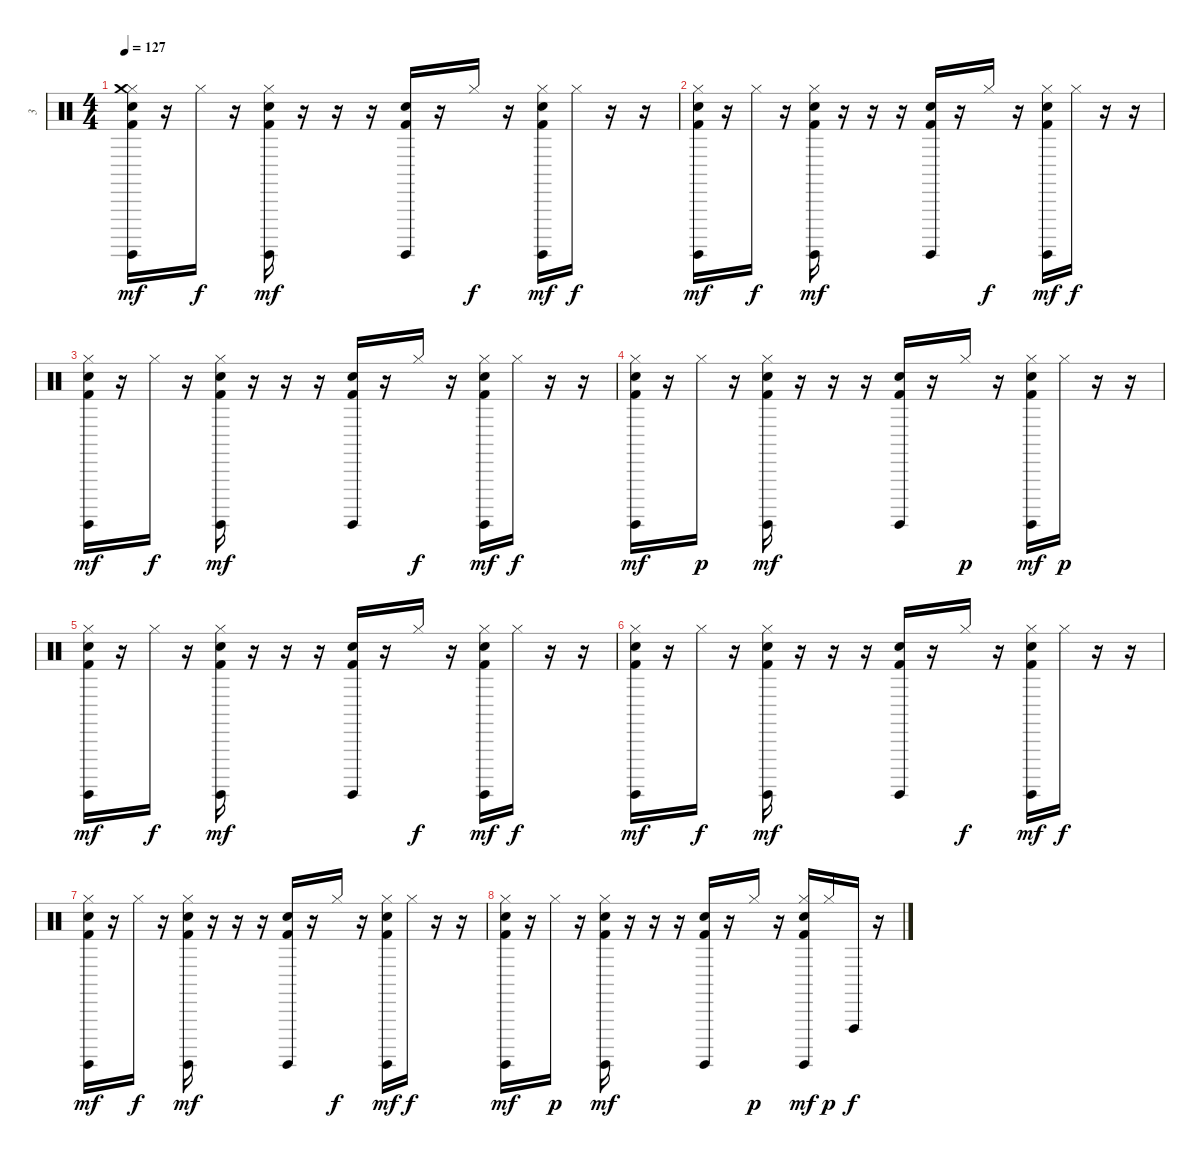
\track ("3" "3") {instrument percussion}
\staff {score}
\articulation defaults
\ts (4 4)
\tempo 127
\clef neutral
\ks c
("Hi-Hat (closed)" "Crash medium (hit)" "Surdo (hit)" "Kick (hit) 2" "Hand Clap (hit)").16{dy mf} r.16 "Hi-Hat (closed)".16{dy f} r.16 ("Hi-Hat (closed)" "Surdo (hit)" "Kick (hit) 2" "Hand Clap (hit)").16{dy mf} r.16 r.16 r.16 ("Surdo (hit)" "Kick (hit) 2" "Hand Clap (hit)").16 r.16 "Hi-Hat (closed)".16{dy f} r.16 ("Hi-Hat (closed)" "Surdo (hit)" "Kick (hit) 2" "Hand Clap (hit)").16{dy mf} "Hi-Hat (closed)".16{dy f} r.16 r.16 |
("Hi-Hat (closed)" "Surdo (hit)" "Kick (hit) 2" "Hand Clap (hit)").16{dy mf} r.16 "Hi-Hat (closed)".16{dy f} r.16 ("Hi-Hat (closed)" "Surdo (hit)" "Kick (hit) 2" "Hand Clap (hit)").16{dy mf} r.16 r.16 r.16 ("Surdo (hit)" "Kick (hit) 2" "Hand Clap (hit)").16 r.16 "Hi-Hat (closed)".16{dy f} r.16 ("Hi-Hat (closed)" "Surdo (hit)" "Kick (hit) 2" "Hand Clap (hit)").16{dy mf} "Hi-Hat (closed)".16{dy f} r.16 r.16 |
("Hi-Hat (closed)" "Surdo (hit)" "Kick (hit) 2" "Hand Clap (hit)").16{dy mf} r.16 "Hi-Hat (closed)".16{dy f} r.16 ("Hi-Hat (closed)" "Surdo (hit)" "Kick (hit) 2" "Hand Clap (hit)").16{dy mf} r.16 r.16 r.16 ("Surdo (hit)" "Kick (hit) 2" "Hand Clap (hit)").16 r.16 "Hi-Hat (closed)".16{dy f} r.16 ("Hi-Hat (closed)" "Surdo (hit)" "Kick (hit) 2" "Hand Clap (hit)").16{dy mf} "Hi-Hat (closed)".16{dy f} r.16 r.16 |
("Hi-Hat (closed)" "Surdo (hit)" "Kick (hit) 2" "Hand Clap (hit)").16{dy mf} r.16 "Hi-Hat (closed)".16{dy p} r.16 ("Hi-Hat (closed)" "Surdo (hit)" "Kick (hit) 2" "Hand Clap (hit)").16{dy mf} r.16 r.16 r.16 ("Surdo (hit)" "Kick (hit) 2" "Hand Clap (hit)").16 r.16 "Hi-Hat (closed)".16{dy p} r.16 ("Hi-Hat (closed)" "Surdo (hit)" "Kick (hit) 2" "Hand Clap (hit)").16{dy mf} "Hi-Hat (closed)".16{dy p} r.16 r.16 |
("Hi-Hat (closed)" "Surdo (hit)" "Kick (hit) 2" "Hand Clap (hit)").16{dy mf} r.16 "Hi-Hat (closed)".16{dy f} r.16 ("Hi-Hat (closed)" "Surdo (hit)" "Kick (hit) 2" "Hand Clap (hit)").16{dy mf} r.16 r.16 r.16 ("Surdo (hit)" "Kick (hit) 2" "Hand Clap (hit)").16 r.16 "Hi-Hat (closed)".16{dy f} r.16 ("Hi-Hat (closed)" "Surdo (hit)" "Kick (hit) 2" "Hand Clap (hit)").16{dy mf} "Hi-Hat (closed)".16{dy f} r.16 r.16 |
("Hi-Hat (closed)" "Surdo (hit)" "Kick (hit) 2" "Hand Clap (hit)").16{dy mf} r.16 "Hi-Hat (closed)".16{dy f} r.16 ("Hi-Hat (closed)" "Surdo (hit)" "Kick (hit) 2" "Hand Clap (hit)").16{dy mf} r.16 r.16 r.16 ("Surdo (hit)" "Kick (hit) 2" "Hand Clap (hit)").16 r.16 "Hi-Hat (closed)".16{dy f} r.16 ("Hi-Hat (closed)" "Surdo (hit)" "Kick (hit) 2" "Hand Clap (hit)").16{dy mf} "Hi-Hat (closed)".16{dy f} r.16 r.16 |
("Hi-Hat (closed)" "Surdo (hit)" "Kick (hit) 2" "Hand Clap (hit)").16{dy mf} r.16 "Hi-Hat (closed)".16{dy f} r.16 ("Hi-Hat (closed)" "Surdo (hit)" "Kick (hit) 2" "Hand Clap (hit)").16{dy mf} r.16 r.16 r.16 ("Surdo (hit)" "Kick (hit) 2" "Hand Clap (hit)").16 r.16 "Hi-Hat (closed)".16{dy f} r.16 ("Hi-Hat (closed)" "Surdo (hit)" "Kick (hit) 2" "Hand Clap (hit)").16{dy mf} "Hi-Hat (closed)".16{dy f} r.16 r.16 |
("Hi-Hat (closed)" "Surdo (hit)" "Kick (hit) 2" "Hand Clap (hit)").16{dy mf} r.16 "Hi-Hat (closed)".16{dy p} r.16 ("Hi-Hat (closed)" "Surdo (hit)" "Kick (hit) 2" "Hand Clap (hit)").16{dy mf} r.16 r.16 r.16 ("Surdo (hit)" "Kick (hit) 2" "Hand Clap (hit)").16 r.16 "Hi-Hat (closed)".16{dy p} r.16 ("Hi-Hat (closed)" "Surdo (hit)" "Kick (hit) 2" "Hand Clap (hit)").16{dy mf} "Hi-Hat (closed)".16{dy p} "Vibraslap (hit)".16{dy f} r.16
